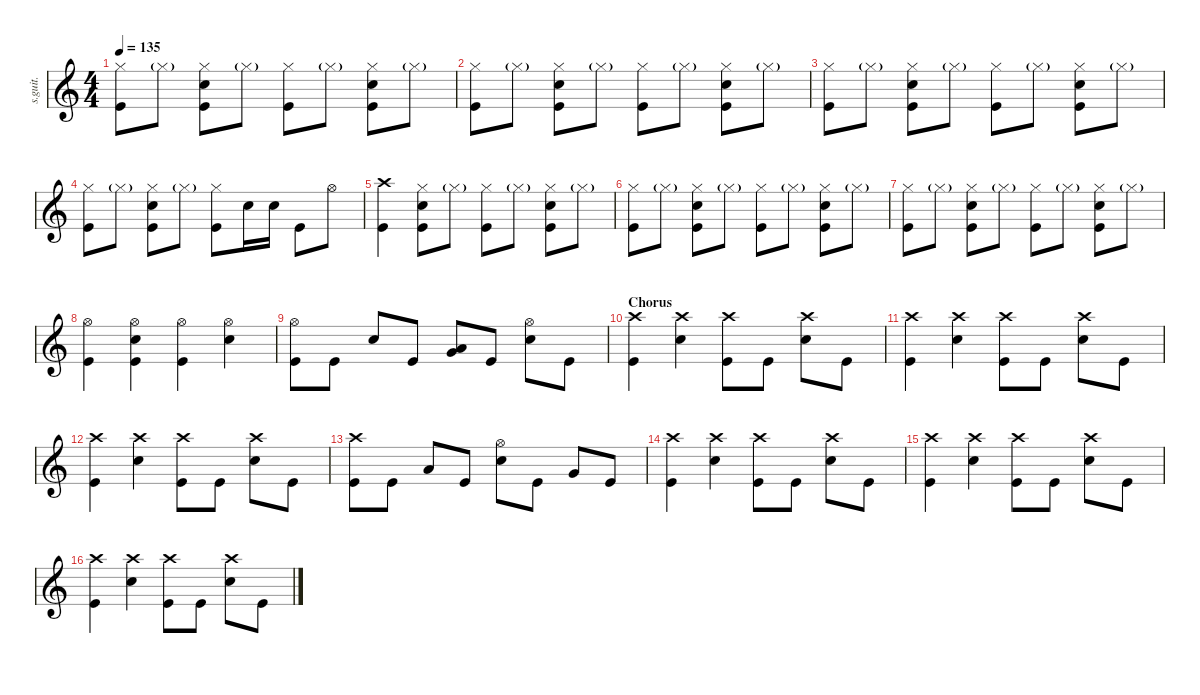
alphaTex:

\defaultSystemsLayout 4
\hideDynamics
\bracketExtendMode nobrackets
\track ("Jen Ledger" "s.guit.") {instrument percussion}
\staff {score}
\articulation defaults
\ts (4 4)
\tempo 135
\clef g2
\ks c
("Hi-Hat (closed)" "Kick (hit)").8{lyrics (0 "") lyrics (1 "") lyrics (2 "") lyrics (3 "") lyrics (4 "") dy f} "Hi-Hat (closed)"{g}.8{lyrics (0 "") lyrics (1 "") lyrics (2 "") lyrics (3 "") lyrics (4 "") dy ppp} ("Hi-Hat (closed)" "Snare (hit) 2" "Kick (hit)").8{lyrics (0 "") lyrics (1 "") lyrics (2 "") lyrics (3 "") lyrics (4 "") dy f} "Hi-Hat (closed)"{g}.8{lyrics (0 "") lyrics (1 "") lyrics (2 "") lyrics (3 "") lyrics (4 "") dy ppp} ("Hi-Hat (closed)" "Kick (hit)").8{lyrics (0 "") lyrics (1 "") lyrics (2 "") lyrics (3 "") lyrics (4 "") dy f} "Hi-Hat (closed)"{g}.8{lyrics (0 "") lyrics (1 "") lyrics (2 "") lyrics (3 "") lyrics (4 "") dy ppp} ("Hi-Hat (closed)" "Snare (hit) 2" "Kick (hit)").8{lyrics (0 "") lyrics (1 "") lyrics (2 "") lyrics (3 "") lyrics (4 "") dy f} "Hi-Hat (closed)"{g}.8{lyrics (0 "") lyrics (1 "") lyrics (2 "") lyrics (3 "") lyrics (4 "") dy ppp} |
("Hi-Hat (closed)" "Kick (hit)").8{lyrics (0 "") lyrics (1 "") lyrics (2 "") lyrics (3 "") lyrics (4 "") dy f} "Hi-Hat (closed)"{g}.8{lyrics (0 "") lyrics (1 "") lyrics (2 "") lyrics (3 "") lyrics (4 "") dy ppp} ("Hi-Hat (closed)" "Snare (hit) 2" "Kick (hit)").8{lyrics (0 "") lyrics (1 "") lyrics (2 "") lyrics (3 "") lyrics (4 "") dy f} "Hi-Hat (closed)"{g}.8{lyrics (0 "") lyrics (1 "") lyrics (2 "") lyrics (3 "") lyrics (4 "") dy ppp} ("Hi-Hat (closed)" "Kick (hit)").8{lyrics (0 "") lyrics (1 "") lyrics (2 "") lyrics (3 "") lyrics (4 "") dy f} "Hi-Hat (closed)"{g}.8{lyrics (0 "") lyrics (1 "") lyrics (2 "") lyrics (3 "") lyrics (4 "") dy ppp} ("Hi-Hat (closed)" "Snare (hit) 2" "Kick (hit)").8{lyrics (0 "") lyrics (1 "") lyrics (2 "") lyrics (3 "") lyrics (4 "") dy f} "Hi-Hat (closed)"{g}.8{lyrics (0 "") lyrics (1 "") lyrics (2 "") lyrics (3 "") lyrics (4 "") dy ppp} |
("Hi-Hat (closed)" "Kick (hit)").8{lyrics (0 "") lyrics (1 "") lyrics (2 "") lyrics (3 "") lyrics (4 "") dy f} "Hi-Hat (closed)"{g}.8{lyrics (0 "") lyrics (1 "") lyrics (2 "") lyrics (3 "") lyrics (4 "") dy ppp} ("Hi-Hat (closed)" "Snare (hit) 2" "Kick (hit)").8{lyrics (0 "") lyrics (1 "") lyrics (2 "") lyrics (3 "") lyrics (4 "") dy f} "Hi-Hat (closed)"{g}.8{lyrics (0 "") lyrics (1 "") lyrics (2 "") lyrics (3 "") lyrics (4 "") dy ppp} ("Hi-Hat (closed)" "Kick (hit)").8{lyrics (0 "") lyrics (1 "") lyrics (2 "") lyrics (3 "") lyrics (4 "") dy f} "Hi-Hat (closed)"{g}.8{lyrics (0 "") lyrics (1 "") lyrics (2 "") lyrics (3 "") lyrics (4 "") dy ppp} ("Hi-Hat (closed)" "Snare (hit) 2" "Kick (hit)").8{lyrics (0 "") lyrics (1 "") lyrics (2 "") lyrics (3 "") lyrics (4 "") dy f} "Hi-Hat (closed)"{g}.8{lyrics (0 "") lyrics (1 "") lyrics (2 "") lyrics (3 "") lyrics (4 "") dy ppp} |
("Hi-Hat (closed)" "Kick (hit)").8{lyrics (0 "") lyrics (1 "") lyrics (2 "") lyrics (3 "") lyrics (4 "") dy f} "Hi-Hat (closed)"{g}.8{lyrics (0 "") lyrics (1 "") lyrics (2 "") lyrics (3 "") lyrics (4 "") dy ppp} ("Hi-Hat (closed)" "Snare (hit) 2" "Kick (hit)").8{lyrics (0 "") lyrics (1 "") lyrics (2 "") lyrics (3 "") lyrics (4 "") dy f} "Hi-Hat (closed)"{g}.8{lyrics (0 "") lyrics (1 "") lyrics (2 "") lyrics (3 "") lyrics (4 "") dy ppp} ("Hi-Hat (closed)" "Kick (hit)").8{lyrics (0 "") lyrics (1 "") lyrics (2 "") lyrics (3 "") lyrics (4 "") dy f} "Snare (hit) 2".16{lyrics (0 "") lyrics (1 "") lyrics (2 "") lyrics (3 "") lyrics (4 "")} "Snare (hit) 2".16{lyrics (0 "") lyrics (1 "") lyrics (2 "") lyrics (3 "") lyrics (4 "")} "Kick (hit)".8{lyrics (0 "") lyrics (1 "") lyrics (2 "") lyrics (3 "") lyrics (4 "") dy fff} "Hi-Hat (open)".8{lyrics (0 "") lyrics (1 "") lyrics (2 "") lyrics (3 "") lyrics (4 "") dy f} |
("Crash high (hit)" "Kick (hit)").4{lyrics (0 "") lyrics (1 "") lyrics (2 "") lyrics (3 "") lyrics (4 "") dy fff} ("Hi-Hat (closed)" "Snare (hit) 2" "Kick (hit)").8{lyrics (0 "") lyrics (1 "") lyrics (2 "") lyrics (3 "") lyrics (4 "") dy f} "Hi-Hat (closed)"{g}.8{lyrics (0 "") lyrics (1 "") lyrics (2 "") lyrics (3 "") lyrics (4 "") dy ppp} ("Hi-Hat (closed)" "Kick (hit)").8{lyrics (0 "") lyrics (1 "") lyrics (2 "") lyrics (3 "") lyrics (4 "") dy f} "Hi-Hat (closed)"{g}.8{lyrics (0 "") lyrics (1 "") lyrics (2 "") lyrics (3 "") lyrics (4 "") dy ppp} ("Hi-Hat (closed)" "Snare (hit) 2" "Kick (hit)").8{lyrics (0 "") lyrics (1 "") lyrics (2 "") lyrics (3 "") lyrics (4 "") dy f} "Hi-Hat (closed)"{g}.8{lyrics (0 "") lyrics (1 "") lyrics (2 "") lyrics (3 "") lyrics (4 "") dy ppp} |
("Hi-Hat (closed)" "Kick (hit)").8{lyrics (0 "") lyrics (1 "") lyrics (2 "") lyrics (3 "") lyrics (4 "") dy f} "Hi-Hat (closed)"{g}.8{lyrics (0 "") lyrics (1 "") lyrics (2 "") lyrics (3 "") lyrics (4 "") dy ppp} ("Hi-Hat (closed)" "Snare (hit) 2" "Kick (hit)").8{lyrics (0 "") lyrics (1 "") lyrics (2 "") lyrics (3 "") lyrics (4 "") dy f} "Hi-Hat (closed)"{g}.8{lyrics (0 "") lyrics (1 "") lyrics (2 "") lyrics (3 "") lyrics (4 "") dy ppp} ("Hi-Hat (closed)" "Kick (hit)").8{lyrics (0 "") lyrics (1 "") lyrics (2 "") lyrics (3 "") lyrics (4 "") dy f} "Hi-Hat (closed)"{g}.8{lyrics (0 "") lyrics (1 "") lyrics (2 "") lyrics (3 "") lyrics (4 "") dy ppp} ("Hi-Hat (closed)" "Snare (hit) 2" "Kick (hit)").8{lyrics (0 "") lyrics (1 "") lyrics (2 "") lyrics (3 "") lyrics (4 "") dy f} "Hi-Hat (closed)"{g}.8{lyrics (0 "") lyrics (1 "") lyrics (2 "") lyrics (3 "") lyrics (4 "") dy ppp} |
("Hi-Hat (closed)" "Kick (hit)").8{lyrics (0 "") lyrics (1 "") lyrics (2 "") lyrics (3 "") lyrics (4 "") dy f} "Hi-Hat (closed)"{g}.8{lyrics (0 "") lyrics (1 "") lyrics (2 "") lyrics (3 "") lyrics (4 "") dy ppp} ("Hi-Hat (closed)" "Snare (hit) 2" "Kick (hit)").8{lyrics (0 "") lyrics (1 "") lyrics (2 "") lyrics (3 "") lyrics (4 "") dy f} "Hi-Hat (closed)"{g}.8{lyrics (0 "") lyrics (1 "") lyrics (2 "") lyrics (3 "") lyrics (4 "") dy ppp} ("Hi-Hat (closed)" "Kick (hit)").8{lyrics (0 "") lyrics (1 "") lyrics (2 "") lyrics (3 "") lyrics (4 "") dy f} "Hi-Hat (closed)"{g}.8{lyrics (0 "") lyrics (1 "") lyrics (2 "") lyrics (3 "") lyrics (4 "") dy ppp} ("Hi-Hat (closed)" "Snare (hit) 2" "Kick (hit)").8{lyrics (0 "") lyrics (1 "") lyrics (2 "") lyrics (3 "") lyrics (4 "") dy f} "Hi-Hat (closed)"{g}.8{lyrics (0 "") lyrics (1 "") lyrics (2 "") lyrics (3 "") lyrics (4 "") dy ppp} |
("Hi-Hat (open)" "Kick (hit)").4{lyrics (0 "") lyrics (1 "") lyrics (2 "") lyrics (3 "") lyrics (4 "") dy f} ("Hi-Hat (open)" "Snare (hit) 2" "Kick (hit)").4{lyrics (0 "") lyrics (1 "") lyrics (2 "") lyrics (3 "") lyrics (4 "")} ("Hi-Hat (open)" "Kick (hit)").4{lyrics (0 "") lyrics (1 "") lyrics (2 "") lyrics (3 "") lyrics (4 "")} ("Hi-Hat (open)" "Snare (hit) 2").4{lyrics (0 "") lyrics (1 "") lyrics (2 "") lyrics (3 "") lyrics (4 "")} |
("Hi-Hat (open)" "Kick (hit)").8{lyrics (0 "") lyrics (1 "") lyrics (2 "") lyrics (3 "") lyrics (4 "")} "Kick (hit)".8{lyrics (0 "") lyrics (1 "") lyrics (2 "") lyrics (3 "") lyrics (4 "") dy fff} "Snare (hit) 2".8{lyrics (0 "") lyrics (1 "") lyrics (2 "") lyrics (3 "") lyrics (4 "") dy f} "Kick (hit)".8{lyrics (0 "") lyrics (1 "") lyrics (2 "") lyrics (3 "") lyrics (4 "") dy fff} ("Low Tom (hit)" "Very Low Tom (hit)").8{lyrics (0 "") lyrics (1 "") lyrics (2 "") lyrics (3 "") lyrics (4 "")} "Kick (hit)".8{lyrics (0 "") lyrics (1 "") lyrics (2 "") lyrics (3 "") lyrics (4 "")} ("Hi-Hat (open)" "Snare (hit) 2").8{lyrics (0 "") lyrics (1 "") lyrics (2 "") lyrics (3 "") lyrics (4 "") dy f} "Kick (hit)".8{lyrics (0 "") lyrics (1 "") lyrics (2 "") lyrics (3 "") lyrics (4 "") dy fff} |
\section ("" "Chorus")
("Crash high (hit)" "Kick (hit)").4{lyrics (0 "") lyrics (1 "") lyrics (2 "") lyrics (3 "") lyrics (4 "")} ("Crash high (hit)" "Snare (hit) 2").4{lyrics (0 "") lyrics (1 "") lyrics (2 "") lyrics (3 "") lyrics (4 "") dy f} ("Crash high (hit)" "Kick (hit)").8{lyrics (0 "") lyrics (1 "") lyrics (2 "") lyrics (3 "") lyrics (4 "")} "Kick (hit)".8{lyrics (0 "") lyrics (1 "") lyrics (2 "") lyrics (3 "") lyrics (4 "") dy fff} ("Crash high (hit)" "Snare (hit) 2").8{lyrics (0 "") lyrics (1 "") lyrics (2 "") lyrics (3 "") lyrics (4 "") dy f} "Kick (hit)".8{lyrics (0 "") lyrics (1 "") lyrics (2 "") lyrics (3 "") lyrics (4 "") dy fff} |
("Crash high (hit)" "Kick (hit)").4{lyrics (0 "") lyrics (1 "") lyrics (2 "") lyrics (3 "") lyrics (4 "")} ("Crash high (hit)" "Snare (hit) 2").4{lyrics (0 "") lyrics (1 "") lyrics (2 "") lyrics (3 "") lyrics (4 "") dy f} ("Crash high (hit)" "Kick (hit)").8{lyrics (0 "") lyrics (1 "") lyrics (2 "") lyrics (3 "") lyrics (4 "")} "Kick (hit)".8{lyrics (0 "") lyrics (1 "") lyrics (2 "") lyrics (3 "") lyrics (4 "") dy fff} ("Crash high (hit)" "Snare (hit) 2").8{lyrics (0 "") lyrics (1 "") lyrics (2 "") lyrics (3 "") lyrics (4 "") dy f} "Kick (hit)".8{lyrics (0 "") lyrics (1 "") lyrics (2 "") lyrics (3 "") lyrics (4 "") dy fff} |
("Crash high (hit)" "Kick (hit)").4{lyrics (0 "") lyrics (1 "") lyrics (2 "") lyrics (3 "") lyrics (4 "")} ("Crash high (hit)" "Snare (hit) 2").4{lyrics (0 "") lyrics (1 "") lyrics (2 "") lyrics (3 "") lyrics (4 "") dy f} ("Crash high (hit)" "Kick (hit)").8{lyrics (0 "") lyrics (1 "") lyrics (2 "") lyrics (3 "") lyrics (4 "")} "Kick (hit)".8{lyrics (0 "") lyrics (1 "") lyrics (2 "") lyrics (3 "") lyrics (4 "") dy fff} ("Crash high (hit)" "Snare (hit) 2").8{lyrics (0 "") lyrics (1 "") lyrics (2 "") lyrics (3 "") lyrics (4 "") dy f} "Kick (hit)".8{lyrics (0 "") lyrics (1 "") lyrics (2 "") lyrics (3 "") lyrics (4 "") dy fff} |
("Crash high (hit)" "Kick (hit)").8{lyrics (0 "") lyrics (1 "") lyrics (2 "") lyrics (3 "") lyrics (4 "")} "Kick (hit)".8{lyrics (0 "") lyrics (1 "") lyrics (2 "") lyrics (3 "") lyrics (4 "")} "Low Tom (hit)".8{lyrics (0 "") lyrics (1 "") lyrics (2 "") lyrics (3 "") lyrics (4 "")} "Kick (hit)".8{lyrics (0 "") lyrics (1 "") lyrics (2 "") lyrics (3 "") lyrics (4 "")} ("Hi-Hat (open)" "Snare (hit) 2").8{lyrics (0 "") lyrics (1 "") lyrics (2 "") lyrics (3 "") lyrics (4 "") dy f} "Kick (hit)".8{lyrics (0 "") lyrics (1 "") lyrics (2 "") lyrics (3 "") lyrics (4 "") dy fff} "Very Low Tom (hit)".8{lyrics (0 "") lyrics (1 "") lyrics (2 "") lyrics (3 "") lyrics (4 "") dy f} "Kick (hit)".8{lyrics (0 "") lyrics (1 "") lyrics (2 "") lyrics (3 "") lyrics (4 "") dy fff} |
("Crash high (hit)" "Kick (hit)").4{lyrics (0 "") lyrics (1 "") lyrics (2 "") lyrics (3 "") lyrics (4 "")} ("Crash high (hit)" "Snare (hit) 2").4{lyrics (0 "") lyrics (1 "") lyrics (2 "") lyrics (3 "") lyrics (4 "") dy f} ("Crash high (hit)" "Kick (hit)").8{lyrics (0 "") lyrics (1 "") lyrics (2 "") lyrics (3 "") lyrics (4 "")} "Kick (hit)".8{lyrics (0 "") lyrics (1 "") lyrics (2 "") lyrics (3 "") lyrics (4 "") dy fff} ("Crash high (hit)" "Snare (hit) 2").8{lyrics (0 "") lyrics (1 "") lyrics (2 "") lyrics (3 "") lyrics (4 "") dy f} "Kick (hit)".8{lyrics (0 "") lyrics (1 "") lyrics (2 "") lyrics (3 "") lyrics (4 "") dy fff} |
("Crash high (hit)" "Kick (hit)").4{lyrics (0 "") lyrics (1 "") lyrics (2 "") lyrics (3 "") lyrics (4 "")} ("Crash high (hit)" "Snare (hit) 2").4{lyrics (0 "") lyrics (1 "") lyrics (2 "") lyrics (3 "") lyrics (4 "") dy f} ("Crash high (hit)" "Kick (hit)").8{lyrics (0 "") lyrics (1 "") lyrics (2 "") lyrics (3 "") lyrics (4 "")} "Kick (hit)".8{lyrics (0 "") lyrics (1 "") lyrics (2 "") lyrics (3 "") lyrics (4 "") dy fff} ("Crash high (hit)" "Snare (hit) 2").8{lyrics (0 "") lyrics (1 "") lyrics (2 "") lyrics (3 "") lyrics (4 "") dy f} "Kick (hit)".8{lyrics (0 "") lyrics (1 "") lyrics (2 "") lyrics (3 "") lyrics (4 "") dy fff} |
("Crash high (hit)" "Kick (hit)").4{lyrics (0 "") lyrics (1 "") lyrics (2 "") lyrics (3 "") lyrics (4 "")} ("Crash high (hit)" "Snare (hit) 2").4{lyrics (0 "") lyrics (1 "") lyrics (2 "") lyrics (3 "") lyrics (4 "") dy f} ("Crash high (hit)" "Kick (hit)").8{lyrics (0 "") lyrics (1 "") lyrics (2 "") lyrics (3 "") lyrics (4 "")} "Kick (hit)".8{lyrics (0 "") lyrics (1 "") lyrics (2 "") lyrics (3 "") lyrics (4 "") dy fff} ("Crash high (hit)" "Snare (hit) 2").8{lyrics (0 "") lyrics (1 "") lyrics (2 "") lyrics (3 "") lyrics (4 "") dy f} "Kick (hit)".8{lyrics (0 "") lyrics (1 "") lyrics (2 "") lyrics (3 "") lyrics (4 "") dy fff}
